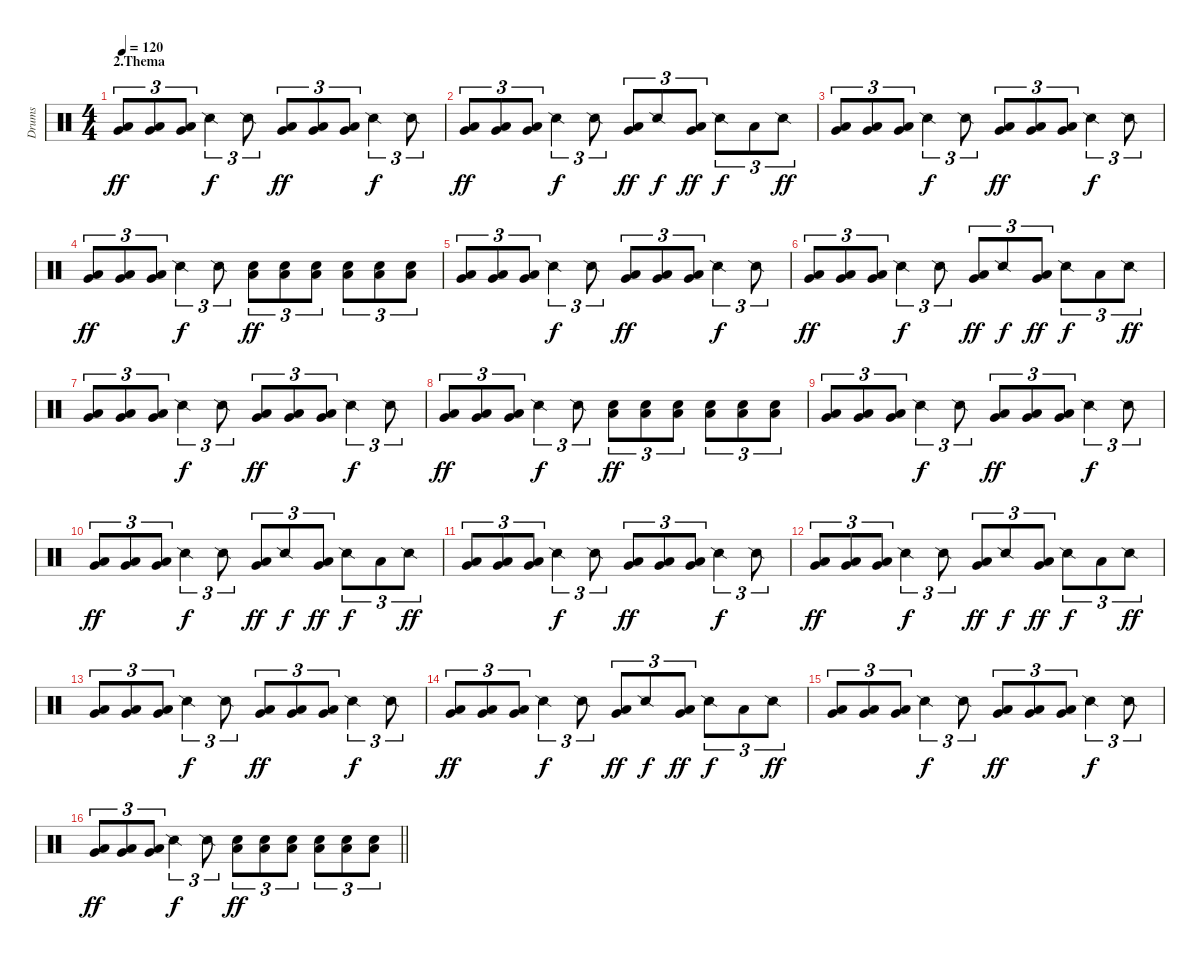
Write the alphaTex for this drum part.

\track ("Drums" "Drums") {instrument percussion}
\staff {score}
\articulation defaults
\ts (4 4)
\section ("" "2.Thema")
\tempo 120
\clef neutral
\ks c
("Very Low Tom (hit)" "Low Floor Tom (hit)").8{tu (3 2) dy ff} ("Very Low Tom (hit)" "Low Floor Tom (hit)").8{tu (3 2)} ("Very Low Tom (hit)" "Low Floor Tom (hit)").8{tu (3 2)} "Snare (side stick) 2".4{tu (3 2) dy f} "Snare (side stick) 2".8{tu (3 2)} ("Very Low Tom (hit)" "Low Floor Tom (hit)").8{tu (3 2) dy ff} ("Very Low Tom (hit)" "Low Floor Tom (hit)").8{tu (3 2)} ("Very Low Tom (hit)" "Low Floor Tom (hit)").8{tu (3 2)} "Snare (side stick) 2".4{tu (3 2) dy f} "Snare (side stick) 2".8{tu (3 2)} |
("Very Low Tom (hit)" "Low Floor Tom (hit)").8{tu (3 2) dy ff} ("Very Low Tom (hit)" "Low Floor Tom (hit)").8{tu (3 2)} ("Very Low Tom (hit)" "Low Floor Tom (hit)").8{tu (3 2)} "Snare (side stick) 2".4{tu (3 2) dy f} "Snare (side stick) 2".8{tu (3 2)} ("Very Low Tom (hit)" "Low Floor Tom (hit)").8{tu (3 2) dy ff} "Snare (side stick) 2".8{tu (3 2) dy f} ("Very Low Tom (hit)" "Low Floor Tom (hit)").8{tu (3 2) dy ff} "Snare (side stick) 2".8{tu (3 2) dy f} "Low Floor Tom (hit)".8{tu (3 2)} "Snare (side stick) 2".8{tu (3 2) dy ff} |
("Very Low Tom (hit)" "Low Floor Tom (hit)").8{tu (3 2)} ("Very Low Tom (hit)" "Low Floor Tom (hit)").8{tu (3 2)} ("Very Low Tom (hit)" "Low Floor Tom (hit)").8{tu (3 2)} "Snare (side stick) 2".4{tu (3 2) dy f} "Snare (side stick) 2".8{tu (3 2)} ("Very Low Tom (hit)" "Low Floor Tom (hit)").8{tu (3 2) dy ff} ("Very Low Tom (hit)" "Low Floor Tom (hit)").8{tu (3 2)} ("Very Low Tom (hit)" "Low Floor Tom (hit)").8{tu (3 2)} "Snare (side stick) 2".4{tu (3 2) dy f} "Snare (side stick) 2".8{tu (3 2)} |
("Very Low Tom (hit)" "Low Floor Tom (hit)").8{tu (3 2) dy ff} ("Very Low Tom (hit)" "Low Floor Tom (hit)").8{tu (3 2)} ("Very Low Tom (hit)" "Low Floor Tom (hit)").8{tu (3 2)} "Snare (side stick) 2".4{tu (3 2) dy f} "Snare (side stick) 2".8{tu (3 2)} ("Electric Snare (hit)" "Low Floor Tom (hit)").8{tu (3 2) dy ff} ("Electric Snare (hit)" "Low Floor Tom (hit)").8{tu (3 2)} ("Electric Snare (hit)" "Low Floor Tom (hit)").8{tu (3 2)} ("Electric Snare (hit)" "Low Floor Tom (hit)").8{tu (3 2)} ("Electric Snare (hit)" "Low Floor Tom (hit)").8{tu (3 2)} ("Electric Snare (hit)" "Low Floor Tom (hit)").8{tu (3 2)} |
("Very Low Tom (hit)" "Low Floor Tom (hit)").8{tu (3 2)} ("Very Low Tom (hit)" "Low Floor Tom (hit)").8{tu (3 2)} ("Very Low Tom (hit)" "Low Floor Tom (hit)").8{tu (3 2)} "Snare (side stick) 2".4{tu (3 2) dy f} "Snare (side stick) 2".8{tu (3 2)} ("Very Low Tom (hit)" "Low Floor Tom (hit)").8{tu (3 2) dy ff} ("Very Low Tom (hit)" "Low Floor Tom (hit)").8{tu (3 2)} ("Very Low Tom (hit)" "Low Floor Tom (hit)").8{tu (3 2)} "Snare (side stick) 2".4{tu (3 2) dy f} "Snare (side stick) 2".8{tu (3 2)} |
("Very Low Tom (hit)" "Low Floor Tom (hit)").8{tu (3 2) dy ff} ("Very Low Tom (hit)" "Low Floor Tom (hit)").8{tu (3 2)} ("Very Low Tom (hit)" "Low Floor Tom (hit)").8{tu (3 2)} "Snare (side stick) 2".4{tu (3 2) dy f} "Snare (side stick) 2".8{tu (3 2)} ("Very Low Tom (hit)" "Low Floor Tom (hit)").8{tu (3 2) dy ff} "Snare (side stick) 2".8{tu (3 2) dy f} ("Very Low Tom (hit)" "Low Floor Tom (hit)").8{tu (3 2) dy ff} "Snare (side stick) 2".8{tu (3 2) dy f} "Low Floor Tom (hit)".8{tu (3 2)} "Snare (side stick) 2".8{tu (3 2) dy ff} |
("Very Low Tom (hit)" "Low Floor Tom (hit)").8{tu (3 2)} ("Very Low Tom (hit)" "Low Floor Tom (hit)").8{tu (3 2)} ("Very Low Tom (hit)" "Low Floor Tom (hit)").8{tu (3 2)} "Snare (side stick) 2".4{tu (3 2) dy f} "Snare (side stick) 2".8{tu (3 2)} ("Very Low Tom (hit)" "Low Floor Tom (hit)").8{tu (3 2) dy ff} ("Very Low Tom (hit)" "Low Floor Tom (hit)").8{tu (3 2)} ("Very Low Tom (hit)" "Low Floor Tom (hit)").8{tu (3 2)} "Snare (side stick) 2".4{tu (3 2) dy f} "Snare (side stick) 2".8{tu (3 2)} |
("Very Low Tom (hit)" "Low Floor Tom (hit)").8{tu (3 2) dy ff} ("Very Low Tom (hit)" "Low Floor Tom (hit)").8{tu (3 2)} ("Very Low Tom (hit)" "Low Floor Tom (hit)").8{tu (3 2)} "Snare (side stick) 2".4{tu (3 2) dy f} "Snare (side stick) 2".8{tu (3 2)} ("Electric Snare (hit)" "Low Floor Tom (hit)").8{tu (3 2) dy ff} ("Electric Snare (hit)" "Low Floor Tom (hit)").8{tu (3 2)} ("Electric Snare (hit)" "Low Floor Tom (hit)").8{tu (3 2)} ("Electric Snare (hit)" "Low Floor Tom (hit)").8{tu (3 2)} ("Electric Snare (hit)" "Low Floor Tom (hit)").8{tu (3 2)} ("Electric Snare (hit)" "Low Floor Tom (hit)").8{tu (3 2)} |
("Very Low Tom (hit)" "Low Floor Tom (hit)").8{tu (3 2)} ("Very Low Tom (hit)" "Low Floor Tom (hit)").8{tu (3 2)} ("Very Low Tom (hit)" "Low Floor Tom (hit)").8{tu (3 2)} "Snare (side stick) 2".4{tu (3 2) dy f} "Snare (side stick) 2".8{tu (3 2)} ("Very Low Tom (hit)" "Low Floor Tom (hit)").8{tu (3 2) dy ff} ("Very Low Tom (hit)" "Low Floor Tom (hit)").8{tu (3 2)} ("Very Low Tom (hit)" "Low Floor Tom (hit)").8{tu (3 2)} "Snare (side stick) 2".4{tu (3 2) dy f} "Snare (side stick) 2".8{tu (3 2)} |
("Very Low Tom (hit)" "Low Floor Tom (hit)").8{tu (3 2) dy ff} ("Very Low Tom (hit)" "Low Floor Tom (hit)").8{tu (3 2)} ("Very Low Tom (hit)" "Low Floor Tom (hit)").8{tu (3 2)} "Snare (side stick) 2".4{tu (3 2) dy f} "Snare (side stick) 2".8{tu (3 2)} ("Very Low Tom (hit)" "Low Floor Tom (hit)").8{tu (3 2) dy ff} "Snare (side stick) 2".8{tu (3 2) dy f} ("Very Low Tom (hit)" "Low Floor Tom (hit)").8{tu (3 2) dy ff} "Snare (side stick) 2".8{tu (3 2) dy f} "Low Floor Tom (hit)".8{tu (3 2)} "Snare (side stick) 2".8{tu (3 2) dy ff} |
("Very Low Tom (hit)" "Low Floor Tom (hit)").8{tu (3 2)} ("Very Low Tom (hit)" "Low Floor Tom (hit)").8{tu (3 2)} ("Very Low Tom (hit)" "Low Floor Tom (hit)").8{tu (3 2)} "Snare (side stick) 2".4{tu (3 2) dy f} "Snare (side stick) 2".8{tu (3 2)} ("Very Low Tom (hit)" "Low Floor Tom (hit)").8{tu (3 2) dy ff} ("Very Low Tom (hit)" "Low Floor Tom (hit)").8{tu (3 2)} ("Very Low Tom (hit)" "Low Floor Tom (hit)").8{tu (3 2)} "Snare (side stick) 2".4{tu (3 2) dy f} "Snare (side stick) 2".8{tu (3 2)} |
("Very Low Tom (hit)" "Low Floor Tom (hit)").8{tu (3 2) dy ff} ("Very Low Tom (hit)" "Low Floor Tom (hit)").8{tu (3 2)} ("Very Low Tom (hit)" "Low Floor Tom (hit)").8{tu (3 2)} "Snare (side stick) 2".4{tu (3 2) dy f} "Snare (side stick) 2".8{tu (3 2)} ("Very Low Tom (hit)" "Low Floor Tom (hit)").8{tu (3 2) dy ff} "Snare (side stick) 2".8{tu (3 2) dy f} ("Very Low Tom (hit)" "Low Floor Tom (hit)").8{tu (3 2) dy ff} "Snare (side stick) 2".8{tu (3 2) dy f} "Low Floor Tom (hit)".8{tu (3 2)} "Snare (side stick) 2".8{tu (3 2) dy ff} |
("Very Low Tom (hit)" "Low Floor Tom (hit)").8{tu (3 2)} ("Very Low Tom (hit)" "Low Floor Tom (hit)").8{tu (3 2)} ("Very Low Tom (hit)" "Low Floor Tom (hit)").8{tu (3 2)} "Snare (side stick) 2".4{tu (3 2) dy f} "Snare (side stick) 2".8{tu (3 2)} ("Very Low Tom (hit)" "Low Floor Tom (hit)").8{tu (3 2) dy ff} ("Very Low Tom (hit)" "Low Floor Tom (hit)").8{tu (3 2)} ("Very Low Tom (hit)" "Low Floor Tom (hit)").8{tu (3 2)} "Snare (side stick) 2".4{tu (3 2) dy f} "Snare (side stick) 2".8{tu (3 2)} |
("Very Low Tom (hit)" "Low Floor Tom (hit)").8{tu (3 2) dy ff} ("Very Low Tom (hit)" "Low Floor Tom (hit)").8{tu (3 2)} ("Very Low Tom (hit)" "Low Floor Tom (hit)").8{tu (3 2)} "Snare (side stick) 2".4{tu (3 2) dy f} "Snare (side stick) 2".8{tu (3 2)} ("Very Low Tom (hit)" "Low Floor Tom (hit)").8{tu (3 2) dy ff} "Snare (side stick) 2".8{tu (3 2) dy f} ("Very Low Tom (hit)" "Low Floor Tom (hit)").8{tu (3 2) dy ff} "Snare (side stick) 2".8{tu (3 2) dy f} "Low Floor Tom (hit)".8{tu (3 2)} "Snare (side stick) 2".8{tu (3 2) dy ff} |
("Very Low Tom (hit)" "Low Floor Tom (hit)").8{tu (3 2)} ("Very Low Tom (hit)" "Low Floor Tom (hit)").8{tu (3 2)} ("Very Low Tom (hit)" "Low Floor Tom (hit)").8{tu (3 2)} "Snare (side stick) 2".4{tu (3 2) dy f} "Snare (side stick) 2".8{tu (3 2)} ("Very Low Tom (hit)" "Low Floor Tom (hit)").8{tu (3 2) dy ff} ("Very Low Tom (hit)" "Low Floor Tom (hit)").8{tu (3 2)} ("Very Low Tom (hit)" "Low Floor Tom (hit)").8{tu (3 2)} "Snare (side stick) 2".4{tu (3 2) dy f} "Snare (side stick) 2".8{tu (3 2)} |
\barLineRight lightlight
("Very Low Tom (hit)" "Low Floor Tom (hit)").8{tu (3 2) dy ff} ("Very Low Tom (hit)" "Low Floor Tom (hit)").8{tu (3 2)} ("Very Low Tom (hit)" "Low Floor Tom (hit)").8{tu (3 2)} "Snare (side stick) 2".4{tu (3 2) dy f} "Snare (side stick) 2".8{tu (3 2)} ("Electric Snare (hit)" "Low Floor Tom (hit)").8{tu (3 2) dy ff} ("Electric Snare (hit)" "Low Floor Tom (hit)").8{tu (3 2)} ("Electric Snare (hit)" "Low Floor Tom (hit)").8{tu (3 2)} ("Electric Snare (hit)" "Low Floor Tom (hit)").8{tu (3 2)} ("Electric Snare (hit)" "Low Floor Tom (hit)").8{tu (3 2)} ("Electric Snare (hit)" "Low Floor Tom (hit)").8{tu (3 2)}
